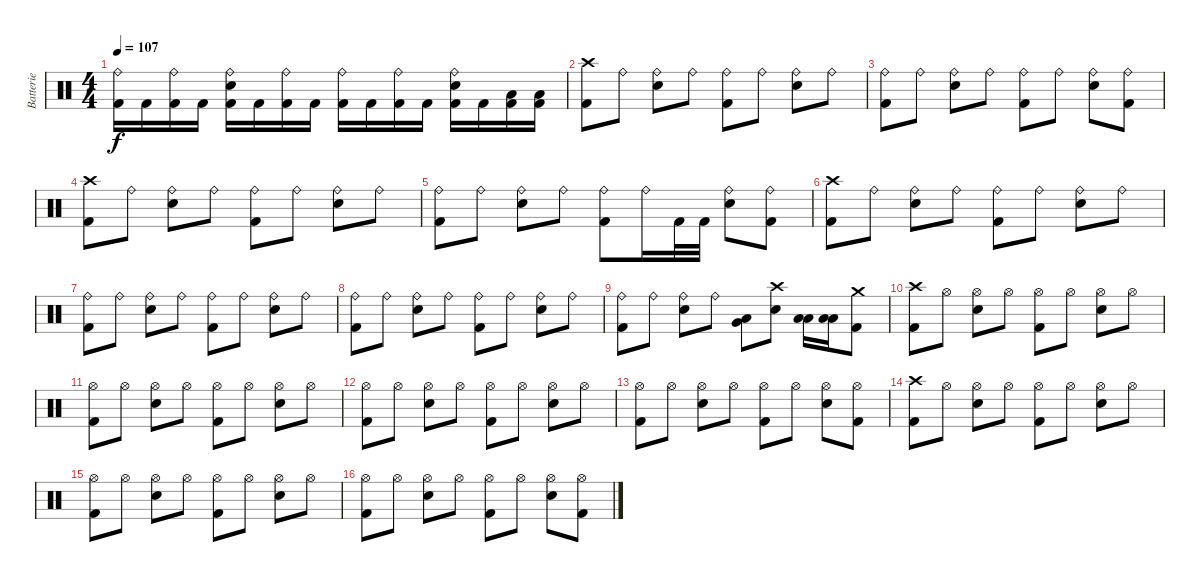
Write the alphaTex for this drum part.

\track ("Batterie" "Batterie") {instrument percussion}
\staff {score}
\articulation defaults
\ts (4 4)
\tempo 107
\clef neutral
\ks c
("Ride (bell)" "Kick (hit) 2").16{dy f} "Kick (hit) 2".16 ("Ride (bell)" "Kick (hit) 2").16 "Kick (hit) 2".16 ("Ride (bell)" "Electric Snare (hit)" "Kick (hit) 2").16 "Kick (hit) 2".16 ("Ride (bell)" "Kick (hit) 2").16 "Kick (hit) 2".16 ("Ride (bell)" "Kick (hit) 2").16 "Kick (hit) 2".16 ("Ride (bell)" "Kick (hit) 2").16 "Kick (hit) 2".16 ("Ride (bell)" "Electric Snare (hit)" "Kick (hit) 2").16 "Kick (hit) 2".16 ("Low Tom (hit)" "Kick (hit) 2").16 ("Low Tom (hit)" "Kick (hit) 2").16 |
("Crash high (hit)" "Kick (hit) 2").8 "Ride (bell)".8 ("Ride (bell)" "Electric Snare (hit)").8 "Ride (bell)".8 ("Ride (bell)" "Kick (hit) 2").8 "Ride (bell)".8 ("Ride (bell)" "Electric Snare (hit)").8 "Ride (bell)".8 |
("Ride (bell)" "Kick (hit) 2").8 "Ride (bell)".8 ("Ride (bell)" "Electric Snare (hit)").8 "Ride (bell)".8 ("Ride (bell)" "Kick (hit) 2").8 "Ride (bell)".8 ("Ride (bell)" "Electric Snare (hit)").8 ("Ride (bell)" "Kick (hit) 2").8 |
("Crash high (hit)" "Kick (hit) 2").8 "Ride (bell)".8 ("Ride (bell)" "Electric Snare (hit)").8 "Ride (bell)".8 ("Ride (bell)" "Kick (hit) 2").8 "Ride (bell)".8 ("Ride (bell)" "Electric Snare (hit)").8 "Ride (bell)".8 |
("Ride (bell)" "Kick (hit) 2").8 "Ride (bell)".8 ("Ride (bell)" "Electric Snare (hit)").8 "Ride (bell)".8 ("Ride (bell)" "Kick (hit) 2").8 "Ride (bell)".16 "Kick (hit) 2".32 "Kick (hit) 2".32 ("Ride (bell)" "Electric Snare (hit)").8 ("Ride (bell)" "Kick (hit) 2").8 |
("Crash high (hit)" "Kick (hit) 2").8 "Ride (bell)".8 ("Ride (bell)" "Electric Snare (hit)").8 "Ride (bell)".8 ("Ride (bell)" "Kick (hit) 2").8 "Ride (bell)".8 ("Ride (bell)" "Electric Snare (hit)").8 "Ride (bell)".8 |
("Ride (bell)" "Kick (hit) 2").8 "Ride (bell)".8 ("Ride (bell)" "Electric Snare (hit)").8 "Ride (bell)".8 ("Ride (bell)" "Kick (hit) 2").8 "Ride (bell)".8 ("Ride (bell)" "Electric Snare (hit)").8 "Ride (bell)".8 |
("Ride (bell)" "Kick (hit) 2").8 "Ride (bell)".8 ("Ride (bell)" "Electric Snare (hit)").8 "Ride (bell)".8 ("Ride (bell)" "Kick (hit) 2").8 "Ride (bell)".8 ("Ride (bell)" "Electric Snare (hit)").8 "Ride (bell)".8 |
("Ride (bell)" "Kick (hit) 2").8 "Ride (bell)".8 ("Ride (bell)" "Electric Snare (hit)").8 "Ride (bell)".8 ("Low Tom (hit)" "Very Low Tom (hit)").8{bu 60} ("Crash high (hit)" "Electric Snare (hit)").8 ("Low Tom (hit)" "Low Floor Tom (hit)").16{bu 60} ("Low Tom (hit)" "Low Floor Tom (hit)").16{bu 60} ("Crash medium (hit)" "Kick (hit) 2").8 |
("Crash high (hit)" "Kick (hit) 2").8 "Hi-Hat (open)".8 ("Hi-Hat (open)" "Electric Snare (hit)").8 "Hi-Hat (open)".8 ("Hi-Hat (open)" "Kick (hit) 2").8 "Hi-Hat (open)".8 ("Hi-Hat (open)" "Electric Snare (hit)").8 "Hi-Hat (open)".8 |
("Hi-Hat (open)" "Kick (hit) 2").8 "Hi-Hat (open)".8 ("Hi-Hat (open)" "Electric Snare (hit)").8 "Hi-Hat (open)".8 ("Hi-Hat (open)" "Kick (hit) 2").8 "Hi-Hat (open)".8 ("Hi-Hat (open)" "Electric Snare (hit)").8 "Hi-Hat (open)".8 |
("Hi-Hat (open)" "Kick (hit) 2").8 "Hi-Hat (open)".8 ("Hi-Hat (open)" "Electric Snare (hit)").8 "Hi-Hat (open)".8 ("Hi-Hat (open)" "Kick (hit) 2").8 "Hi-Hat (open)".8 ("Hi-Hat (open)" "Electric Snare (hit)").8 "Hi-Hat (open)".8 |
("Hi-Hat (open)" "Kick (hit) 2").8 "Hi-Hat (open)".8 ("Hi-Hat (open)" "Electric Snare (hit)").8 "Hi-Hat (open)".8 ("Hi-Hat (open)" "Kick (hit) 2").8 "Hi-Hat (open)".8 ("Hi-Hat (open)" "Electric Snare (hit)").8 ("Hi-Hat (open)" "Kick (hit) 2").8 |
("Crash high (hit)" "Kick (hit) 2").8 "Hi-Hat (open)".8 ("Hi-Hat (open)" "Electric Snare (hit)").8 "Hi-Hat (open)".8 ("Hi-Hat (open)" "Kick (hit) 2").8 "Hi-Hat (open)".8 ("Hi-Hat (open)" "Electric Snare (hit)").8 "Hi-Hat (open)".8 |
("Hi-Hat (open)" "Kick (hit) 2").8 "Hi-Hat (open)".8 ("Hi-Hat (open)" "Electric Snare (hit)").8 "Hi-Hat (open)".8 ("Hi-Hat (open)" "Kick (hit) 2").8 "Hi-Hat (open)".8 ("Hi-Hat (open)" "Electric Snare (hit)").8 "Hi-Hat (open)".8 |
("Hi-Hat (open)" "Kick (hit) 2").8 "Hi-Hat (open)".8 ("Hi-Hat (open)" "Electric Snare (hit)").8 "Hi-Hat (open)".8 ("Hi-Hat (open)" "Kick (hit) 2").8 "Hi-Hat (open)".8 ("Hi-Hat (open)" "Electric Snare (hit)").8 ("Hi-Hat (open)" "Kick (hit) 2").8
